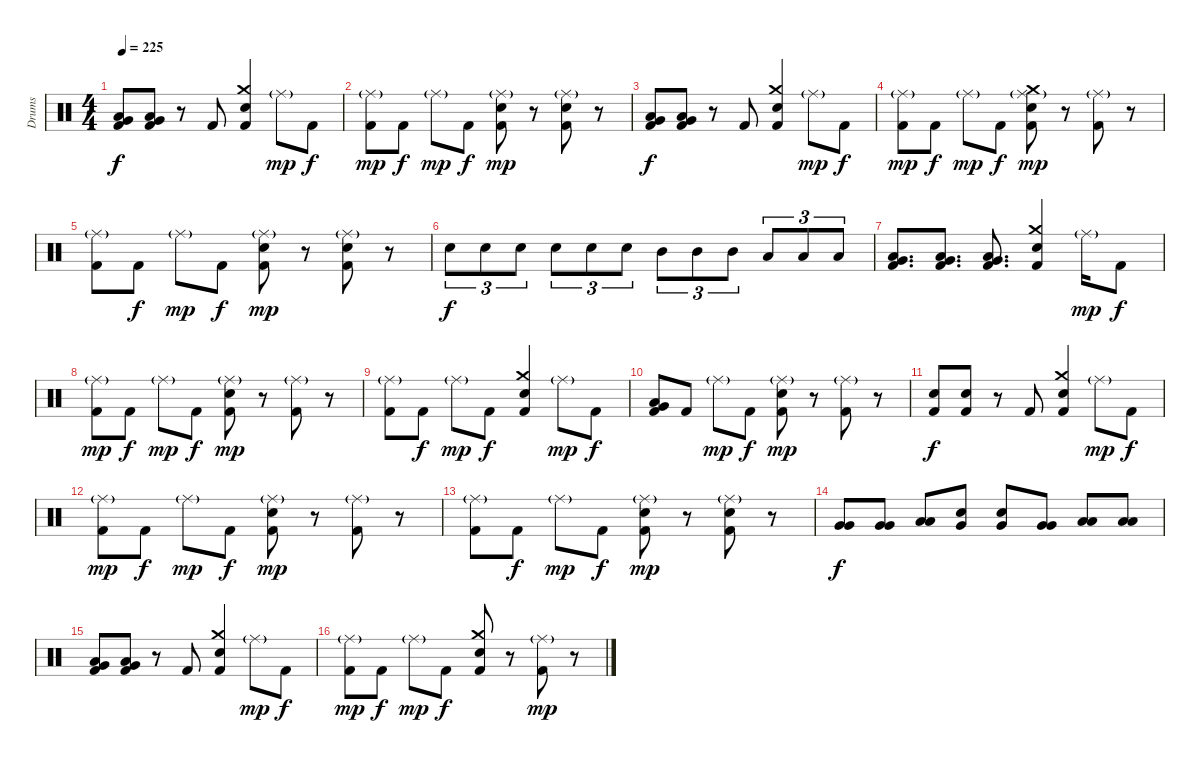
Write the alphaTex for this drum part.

\track ("Drums" "Drums") {instrument percussion}
\staff {score}
\articulation defaults
\ts (4 4)
\tempo 225
\clef neutral
\ks c
("Very Low Tom (hit)" "Low Floor Tom (hit)" "Kick (hit) 2").8{dy f} ("Very Low Tom (hit)" "Low Floor Tom (hit)" "Kick (hit) 2").8 r.8 "Kick (hit) 2".8 ("Crash medium (hit)" "Snare (hit) 2" "Kick (hit) 2").4 "Ride (middle)"{g}.8{dy mp} "Kick (hit) 2".8{dy f} |
("Ride (middle)"{g} "Kick (hit) 2").8{dy mp} "Kick (hit) 2".8{dy f} "Ride (middle)"{g}.8{dy mp} "Kick (hit) 2".8{dy f} ("Snare (hit) 2" "Ride (middle)"{g} "Kick (hit) 2").8{dy mp} r.8 ("Snare (hit) 2" "Ride (middle)"{g} "Kick (hit) 2").8 r.8 |
("Very Low Tom (hit)" "Low Tom (hit)" "Kick (hit) 2").8{dy f} ("Very Low Tom (hit)" "Low Tom (hit)" "Kick (hit) 2").8 r.8 "Kick (hit) 2".8 ("Crash medium (hit)" "Snare (hit) 2" "Kick (hit) 2").4 "Ride (middle)"{g}.8{dy mp} "Kick (hit) 2".8{dy f} |
("Ride (middle)"{g} "Kick (hit) 2").8{dy mp} "Kick (hit) 2".8{dy f} "Ride (middle)"{g}.8{dy mp} "Kick (hit) 2".8{dy f} ("Crash medium (hit)" "Snare (hit) 2" "Ride (middle)"{g} "Kick (hit) 2").8{dy mp} r.8 ("Ride (middle)"{g} "Kick (hit) 2").8 r.8 |
("Ride (middle)"{g} "Kick (hit) 2").8 "Kick (hit) 2".8{dy f} "Ride (middle)"{g}.8{dy mp} "Kick (hit) 2".8{dy f} ("Snare (hit) 2" "Ride (middle)"{g} "Kick (hit) 2").8{dy mp} r.8 ("Snare (hit) 2" "Ride (middle)"{g} "Kick (hit) 2").8 r.8 |
"Snare (hit) 2".8{tu (3 2) dy f} "Snare (hit) 2".8{tu (3 2)} "Snare (hit) 2".8{tu (3 2)} "Snare (hit) 2".8{tu (3 2)} "Snare (hit) 2".8{tu (3 2)} "Snare (hit) 2".8{tu (3 2)} "Mid Tom (hit)".8{tu (3 2)} "Mid Tom (hit)".8{tu (3 2)} "Mid Tom (hit)".8{tu (3 2)} "Low Tom (hit)".8{tu (3 2)} "Low Tom (hit)".8{tu (3 2)} "Low Tom (hit)".8{tu (3 2)} |
("Very Low Tom (hit)" "Low Tom (hit)" "Kick (hit) 2").8{d} ("Very Low Tom (hit)" "Low Tom (hit)" "Kick (hit) 2").8{d} ("Very Low Tom (hit)" "Low Tom (hit)" "Kick (hit) 2").8{d} ("Crash medium (hit)" "Snare (hit) 2" "Kick (hit) 2").4 "Ride (middle)"{g}.16{dy mp} "Kick (hit) 2".8{dy f} |
("Ride (middle)"{g} "Kick (hit) 2").8{dy mp} "Kick (hit) 2".8{dy f} "Ride (middle)"{g}.8{dy mp} "Kick (hit) 2".8{dy f} ("Snare (hit) 2" "Ride (middle)"{g} "Kick (hit) 2").8{dy mp} r.8 ("Ride (middle)"{g} "Kick (hit) 2").8 r.8 |
("Ride (middle)"{g} "Kick (hit) 2").8 "Kick (hit) 2".8{dy f} "Ride (middle)"{g}.8{dy mp} "Kick (hit) 2".8{dy f} ("Crash medium (hit)" "Snare (hit) 2" "Kick (hit) 2").4 "Ride (middle)"{g}.8{dy mp} "Kick (hit) 2".8{dy f} |
("Very Low Tom (hit)" "Low Floor Tom (hit)" "Kick (hit) 2").8 "Kick (hit) 2".8 "Ride (middle)"{g}.8{dy mp} "Kick (hit) 2".8{dy f} ("Snare (hit) 2" "Ride (middle)"{g} "Kick (hit) 2").8{dy mp} r.8 ("Ride (middle)"{g} "Kick (hit) 2").8 r.8 |
("Snare (hit) 2" "Kick (hit) 2").8{dy f} ("Snare (hit) 2" "Kick (hit) 2").8 r.8 "Kick (hit) 2".8 ("Crash medium (hit)" "Snare (hit) 2" "Kick (hit) 2").4 "Ride (middle)"{g}.8{dy mp} "Kick (hit) 2".8{dy f} |
("Ride (middle)"{g} "Kick (hit) 2").8{dy mp} "Kick (hit) 2".8{dy f} "Ride (middle)"{g}.8{dy mp} "Kick (hit) 2".8{dy f} ("Snare (hit) 2" "Ride (middle)"{g} "Kick (hit) 2").8{dy mp} r.8 ("Ride (middle)"{g} "Kick (hit) 2").8 r.8 |
("Ride (middle)"{g} "Kick (hit) 2").8 "Kick (hit) 2".8{dy f} "Ride (middle)"{g}.8{dy mp} "Kick (hit) 2".8{dy f} ("Snare (hit) 2" "Ride (middle)"{g} "Kick (hit) 2").8{dy mp} r.8 ("Snare (hit) 2" "Ride (middle)"{g} "Kick (hit) 2").8 r.8 |
("Very Low Tom (hit)" "Very Low Tom (hit)").8{dy f} ("Very Low Tom (hit)" "Very Low Tom (hit)").8 ("Low Floor Tom (hit)" "Low Floor Tom (hit)").8 ("Very Low Tom (hit)" "Snare (hit) 2").8 ("Very Low Tom (hit)" "Snare (hit) 2").8 ("Very Low Tom (hit)" "Very Low Tom (hit)").8 ("Low Floor Tom (hit)" "Low Floor Tom (hit)").8 ("Low Floor Tom (hit)" "Low Floor Tom (hit)").8 |
("Very Low Tom (hit)" "Low Tom (hit)" "Kick (hit) 2").8 ("Very Low Tom (hit)" "Low Tom (hit)" "Kick (hit) 2").8 r.8 "Kick (hit) 2".8 ("Crash medium (hit)" "Snare (hit) 2" "Kick (hit) 2").4 "Ride (middle)"{g}.8{dy mp} "Kick (hit) 2".8{dy f} |
("Ride (middle)"{g} "Kick (hit) 2").8{dy mp} "Kick (hit) 2".8{dy f} "Ride (middle)"{g}.8{dy mp} "Kick (hit) 2".8{dy f} ("Crash medium (hit)" "Snare (hit) 2" "Kick (hit) 2").8 r.8 ("Ride (middle)"{g} "Kick (hit) 2").8{dy mp} r.8
